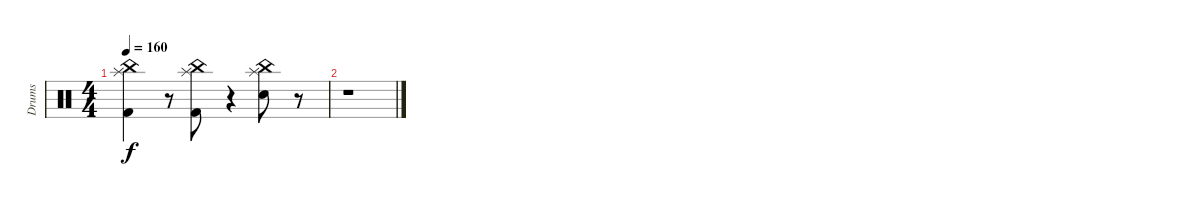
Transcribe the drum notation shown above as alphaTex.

\track ("Drums" "Drums") {instrument percussion}
\staff {score}
\articulation defaults
\ts (4 4)
\tempo 160
\clef neutral
\ks c
("Splash (hit)" "Kick (hit) 2" "China (hit)").4{dy f} r.8 ("Splash (hit)" "Kick (hit) 2" "China (hit)").8 r.4 ("Splash (hit)" "Snare (hit) 2" "China (hit)").8 r.8 |
r.1
